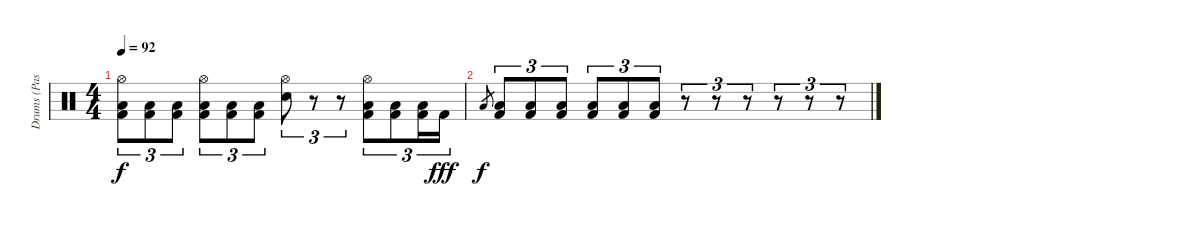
\track ("Drums (Pasanen)" "Drums (Pas") {instrument percussion}
\staff {score}
\articulation defaults
\ts (4 4)
\tempo 92
\clef neutral
\ks c
("Hi-Hat (open)" "Low Tom (hit)" "Kick (hit) 2").8{tu (3 2) dy f} ("Low Tom (hit)" "Kick (hit) 2").8{tu (3 2)} ("Low Tom (hit)" "Kick (hit) 2").8{tu (3 2)} ("Hi-Hat (open)" "Low Tom (hit)" "Kick (hit) 2").8{tu (3 2)} ("Low Tom (hit)" "Kick (hit) 2").8{tu (3 2)} ("Low Tom (hit)" "Kick (hit) 2").8{tu (3 2)} ("Hi-Hat (open)" "Electric Snare (hit)").8{tu (3 2)} r.8{tu (3 2)} r.8{tu (3 2)} ("Hi-Hat (open)" "Low Tom (hit)" "Kick (hit) 2").8{tu (3 2)} ("Low Tom (hit)" "Kick (hit) 2").8{tu (3 2)} ("Low Tom (hit)" "Kick (hit) 2").16{tu (3 2)} "Kick (hit) 2".16{tu (3 2) dy fff} |
"Low Tom (hit)".8{gr dy f} ("Low Tom (hit)" "Kick (hit) 2").8{tu (3 2)} ("Low Tom (hit)" "Kick (hit) 2").8{tu (3 2)} ("Low Tom (hit)" "Kick (hit) 2").8{tu (3 2)} ("Low Tom (hit)" "Kick (hit) 2").8{tu (3 2)} ("Low Tom (hit)" "Kick (hit) 2").8{tu (3 2)} ("Low Tom (hit)" "Kick (hit) 2").8{tu (3 2)} r.8{tu (3 2)} r.8{tu (3 2)} r.8{tu (3 2)} r.8{tu (3 2)} r.8{tu (3 2)} r.8{tu (3 2)}
